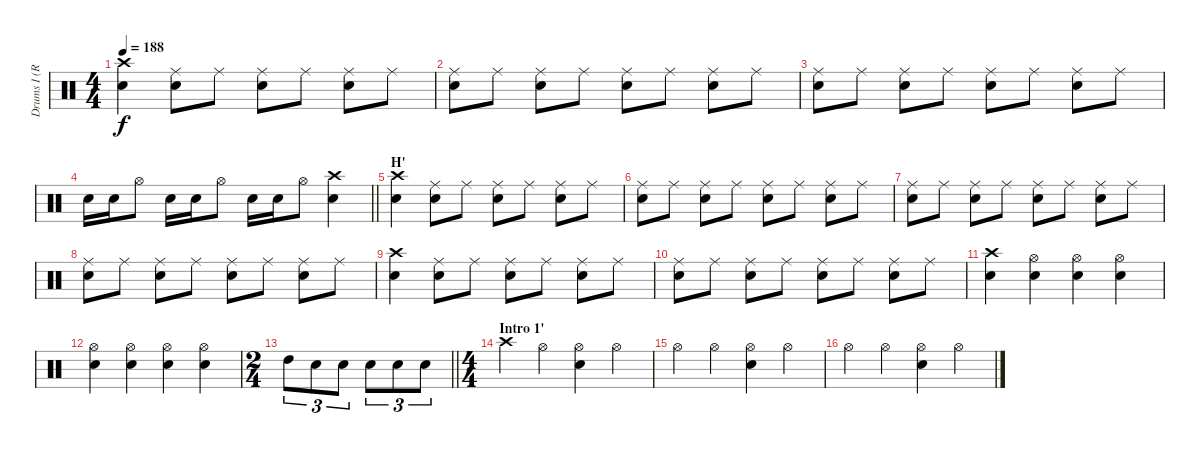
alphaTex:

\track ("Drums I (Ruka)" "Drums I (R") {instrument percussion}
\staff {score}
\articulation defaults
\ts (4 4)
\tempo 188
\clef neutral
\ks c
("Crash high (hit)" "Snare (hit) 2").4{dy f} ("Ride (middle)" "Snare (hit) 2").8 "Ride (middle)".8 ("Ride (middle)" "Snare (hit) 2").8 "Ride (middle)".8 ("Ride (middle)" "Snare (hit) 2").8 "Ride (middle)".8 |
("Ride (middle)" "Snare (hit) 2").8 "Ride (middle)".8 ("Ride (middle)" "Snare (hit) 2").8 "Ride (middle)".8 ("Ride (middle)" "Snare (hit) 2").8 "Ride (middle)".8 ("Ride (middle)" "Snare (hit) 2").8 "Ride (middle)".8 |
("Ride (middle)" "Snare (hit) 2").8 "Ride (middle)".8 ("Ride (middle)" "Snare (hit) 2").8 "Ride (middle)".8 ("Ride (middle)" "Snare (hit) 2").8 "Ride (middle)".8 ("Ride (middle)" "Snare (hit) 2").8 "Ride (middle)".8 |
\barLineRight lightlight "Snare (hit) 2".16 "Snare (hit) 2".16 "Hi-Hat (open)".8 "Snare (hit) 2".16 "Snare (hit) 2".16 "Hi-Hat (open)".8 "Snare (hit) 2".16 "Snare (hit) 2".16 "Hi-Hat (open)".8
("Crash high (hit)" "Snare (hit) 2").4 |
\section ("" "H'")
("Crash high (hit)" "Snare (hit) 2").4 ("Ride (middle)" "Snare (hit) 2").8 "Ride (middle)".8 ("Ride (middle)" "Snare (hit) 2").8 "Ride (middle)".8 ("Ride (middle)" "Snare (hit) 2").8 "Ride (middle)".8 |
("Ride (middle)" "Snare (hit) 2").8 "Ride (middle)".8 ("Ride (middle)" "Snare (hit) 2").8 "Ride (middle)".8 ("Ride (middle)" "Snare (hit) 2").8 "Ride (middle)".8 ("Ride (middle)" "Snare (hit) 2").8 "Ride (middle)".8 |
("Ride (middle)" "Snare (hit) 2").8 "Ride (middle)".8 ("Ride (middle)" "Snare (hit) 2").8 "Ride (middle)".8 ("Ride (middle)" "Snare (hit) 2").8 "Ride (middle)".8 ("Ride (middle)" "Snare (hit) 2").8 "Ride (middle)".8 |
("Ride (middle)" "Snare (hit) 2").8 "Ride (middle)".8 ("Ride (middle)" "Snare (hit) 2").8 "Ride (middle)".8 ("Ride (middle)" "Snare (hit) 2").8 "Ride (middle)".8 ("Ride (middle)" "Snare (hit) 2").8 "Ride (middle)".8 |
("Crash high (hit)" "Snare (hit) 2").4 ("Ride (middle)" "Snare (hit) 2").8 "Ride (middle)".8 ("Ride (middle)" "Snare (hit) 2").8 "Ride (middle)".8 ("Ride (middle)" "Snare (hit) 2").8 "Ride (middle)".8 |
("Ride (middle)" "Snare (hit) 2").8 "Ride (middle)".8 ("Ride (middle)" "Snare (hit) 2").8 "Ride (middle)".8 ("Ride (middle)" "Snare (hit) 2").8 "Ride (middle)".8 ("Ride (middle)" "Snare (hit) 2").8 "Ride (middle)".8 |
("Crash high (hit)" "Snare (hit) 2").4 ("Hi-Hat (open)" "Snare (hit) 2").4 ("Hi-Hat (open)" "Snare (hit) 2").4 ("Hi-Hat (open)" "Snare (hit) 2").4 |
("Hi-Hat (open)" "Snare (hit) 2").4 ("Hi-Hat (open)" "Snare (hit) 2").4 ("Hi-Hat (open)" "Snare (hit) 2").4 ("Hi-Hat (open)" "Snare (hit) 2").4 |
\ts (2 4)
\barLineRight lightlight "High Tom (hit)".8{tu (3 2)} "Snare (hit) 2".8{tu (3 2)} "Snare (hit) 2".8{tu (3 2)} "Snare (hit) 2".8{tu (3 2)} "Snare (hit) 2".8{tu (3 2)} "Snare (hit) 2".8{tu (3 2)}
|
\ts (4 4)
\section ("" "Intro 1'")
"Crash high (hit)".4 "Hi-Hat (open)".4 ("Hi-Hat (open)" "Snare (hit) 2").4 "Hi-Hat (open)".4 |
"Hi-Hat (open)".4 "Hi-Hat (open)".4 ("Hi-Hat (open)" "Snare (hit) 2").4 "Hi-Hat (open)".4 |
"Hi-Hat (open)".4 "Hi-Hat (open)".4 ("Hi-Hat (open)" "Snare (hit) 2").4 "Hi-Hat (open)".4
